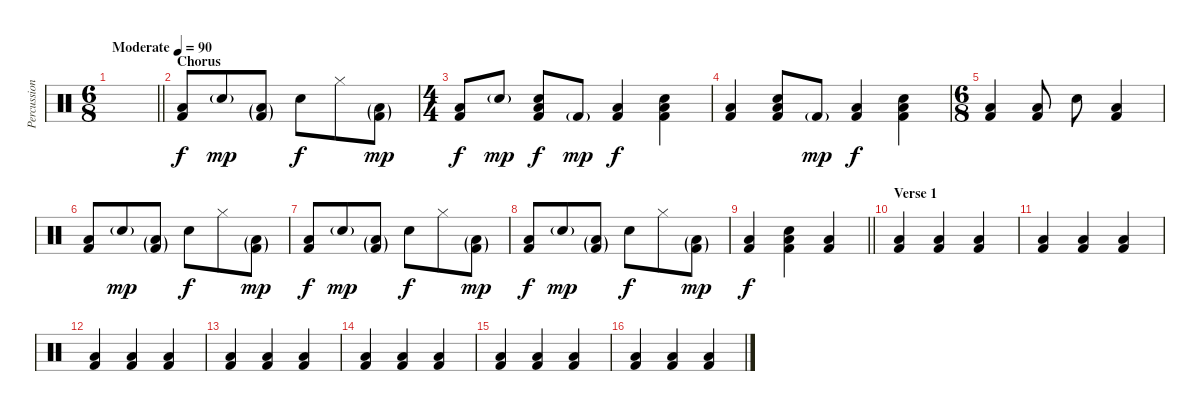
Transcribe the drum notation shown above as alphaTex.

\track ("Percussion" "Percussion") {instrument percussion}
\staff {score}
\articulation defaults
\ts (6 8)
\tempo (90 "Moderate")
\clef neutral
\barLineRight lightlight
\ks c
|
\section ("" "Chorus")
("Low Floor Tom (hit)" "Kick (hit) 2").8 "Snare (hit) 2"{g}.8{dy mp} ("Low Floor Tom (hit)"{g} "Kick (hit) 2"{g}).8 "Snare (hit) 2".8{dy f} "Hi-Hat (closed)".8 ("Low Floor Tom (hit)"{g} "Kick (hit) 2"{g}).8{dy mp} |
\ts (4 4)
("Low Floor Tom (hit)" "Kick (hit) 2").8{dy f} "Snare (hit) 2"{g}.8{dy mp} ("Snare (hit) 2" "Low Floor Tom (hit)" "Kick (hit) 2").8{dy f} "Kick (hit) 2"{g}.8{dy mp} ("Low Floor Tom (hit)" "Kick (hit) 2").4{dy f} ("Snare (hit) 2" "Low Floor Tom (hit)" "Kick (hit) 2").4 |
("Low Floor Tom (hit)" "Kick (hit) 2").4 ("Snare (hit) 2" "Low Floor Tom (hit)" "Kick (hit) 2").8 "Kick (hit) 2"{g}.8{dy mp} ("Low Floor Tom (hit)" "Kick (hit) 2").4{dy f} ("Snare (hit) 2" "Low Floor Tom (hit)" "Kick (hit) 2").4 |
\ts (6 8)
("Low Floor Tom (hit)" "Kick (hit) 2").4 ("Low Floor Tom (hit)" "Kick (hit) 2").8 "Snare (hit) 2".8 ("Low Floor Tom (hit)" "Kick (hit) 2").4 |
("Low Floor Tom (hit)" "Kick (hit) 2").8 "Snare (hit) 2"{g}.8{dy mp} ("Low Floor Tom (hit)"{g} "Kick (hit) 2"{g}).8 "Snare (hit) 2".8{dy f} "Hi-Hat (closed)".8 ("Low Floor Tom (hit)"{g} "Kick (hit) 2"{g}).8{dy mp} |
("Low Floor Tom (hit)" "Kick (hit) 2").8{dy f} "Snare (hit) 2"{g}.8{dy mp} ("Low Floor Tom (hit)"{g} "Kick (hit) 2"{g}).8 "Snare (hit) 2".8{dy f} "Hi-Hat (closed)".8 ("Low Floor Tom (hit)"{g} "Kick (hit) 2"{g}).8{dy mp} |
("Low Floor Tom (hit)" "Kick (hit) 2").8{dy f} "Snare (hit) 2"{g}.8{dy mp} ("Low Floor Tom (hit)"{g} "Kick (hit) 2"{g}).8 "Snare (hit) 2".8{dy f} "Hi-Hat (closed)".8 ("Low Floor Tom (hit)"{g} "Kick (hit) 2"{g}).8{dy mp} |
\barLineRight lightlight
("Low Floor Tom (hit)" "Kick (hit) 2").4{dy f} ("Snare (hit) 2" "Low Floor Tom (hit)" "Kick (hit) 2").4 ("Low Floor Tom (hit)" "Kick (hit) 2").4 |
\section ("" "Verse 1")
("Low Floor Tom (hit)" "Kick (hit) 2").4 ("Low Floor Tom (hit)" "Kick (hit) 2").4 ("Low Floor Tom (hit)" "Kick (hit) 2").4 |
("Low Floor Tom (hit)" "Kick (hit) 2").4 ("Low Floor Tom (hit)" "Kick (hit) 2").4 ("Low Floor Tom (hit)" "Kick (hit) 2").4 |
("Low Floor Tom (hit)" "Kick (hit) 2").4 ("Low Floor Tom (hit)" "Kick (hit) 2").4 ("Low Floor Tom (hit)" "Kick (hit) 2").4 |
("Low Floor Tom (hit)" "Kick (hit) 2").4 ("Low Floor Tom (hit)" "Kick (hit) 2").4 ("Low Floor Tom (hit)" "Kick (hit) 2").4 |
("Low Floor Tom (hit)" "Kick (hit) 2").4 ("Low Floor Tom (hit)" "Kick (hit) 2").4 ("Low Floor Tom (hit)" "Kick (hit) 2").4 |
("Low Floor Tom (hit)" "Kick (hit) 2").4 ("Low Floor Tom (hit)" "Kick (hit) 2").4 ("Low Floor Tom (hit)" "Kick (hit) 2").4 |
("Low Floor Tom (hit)" "Kick (hit) 2").4 ("Low Floor Tom (hit)" "Kick (hit) 2").4 ("Low Floor Tom (hit)" "Kick (hit) 2").4
